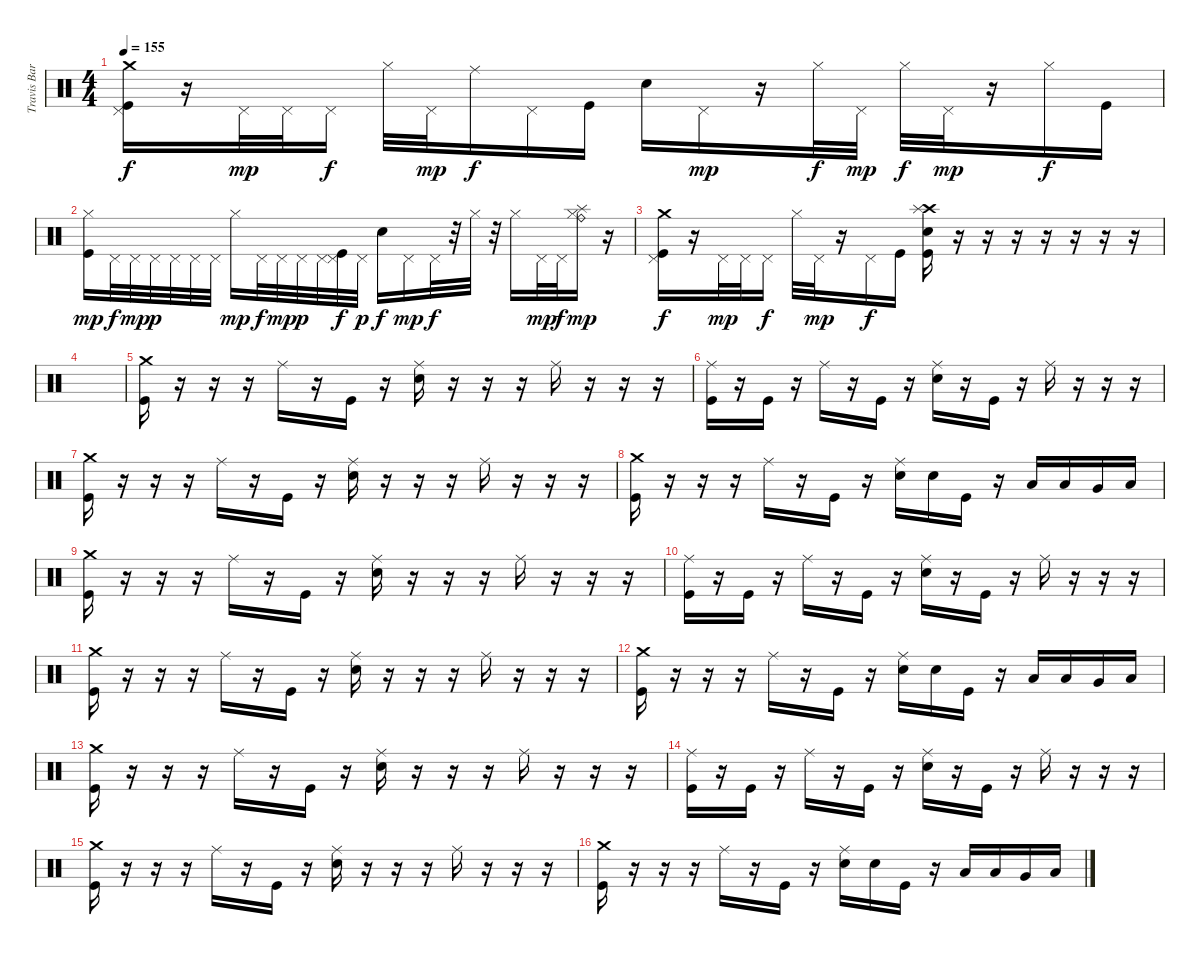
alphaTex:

\track ("Travis Barker(drums)" "Travis Bar") {instrument percussion}
\staff {score}
\articulation defaults
\ts (4 4)
\tempo 155
\clef neutral
\ks c
("Crash medium (hit)" "Pedal Hi-Hat (hit)" "Kick (hit)").16{dy f} r.16 "Pedal Hi-Hat (hit)".32{dy mp} "Pedal Hi-Hat (hit)".32 "Pedal Hi-Hat (hit)".16{dy f} "Hi-Hat (closed)".32 "Pedal Hi-Hat (hit)".32{dy mp} "Ride (middle)".16{dy f} "Pedal Hi-Hat (hit)".16 "Kick (hit)".16 "Electric Snare (hit)".16 "Pedal Hi-Hat (hit)".16{dy mp} r.16 "Hi-Hat (closed)".32{dy f} "Pedal Hi-Hat (hit)".32{dy mp} "Hi-Hat (closed)".32{dy f} "Pedal Hi-Hat (hit)".32{dy mp} r.16 "Hi-Hat (closed)".16{dy f} "Kick (hit)".16 |
("Hi-Hat (closed)" "Kick (hit)").16{dy mp} "Pedal Hi-Hat (hit)".32{dy f} "Pedal Hi-Hat (hit)".32{dy mp} "Pedal Hi-Hat (hit)".32{dy p} "Pedal Hi-Hat (hit)".32 "Pedal Hi-Hat (hit)".32 "Pedal Hi-Hat (hit)".32 "Hi-Hat (closed)".16{dy mp} "Pedal Hi-Hat (hit)".32{dy f} "Pedal Hi-Hat (hit)".32{dy mp} "Pedal Hi-Hat (hit)".32{dy p} "Pedal Hi-Hat (hit)".32 ("Pedal Hi-Hat (hit)" "Kick (hit)").32{dy f} "Pedal Hi-Hat (hit)".32{dy p} "Electric Snare (hit)".16{dy f} "Pedal Hi-Hat (hit)".16{dy mp} "Pedal Hi-Hat (hit)".32{dy f} r.32 "Hi-Hat (closed)".32 r.32 "Hi-Hat (closed)".16 "Pedal Hi-Hat (hit)".32{dy mp} "Pedal Hi-Hat (hit)".32{dy f} ("Splash (hit)" "Ride (bell)" "Hi-Hat (closed)").16{dy mp} r.16 |
("Crash medium (hit)" "Pedal Hi-Hat (hit)" "Kick (hit)").16{dy f} r.16 "Pedal Hi-Hat (hit)".32{dy mp} "Pedal Hi-Hat (hit)".32 "Pedal Hi-Hat (hit)".16{dy f} "Hi-Hat (closed)".32 "Pedal Hi-Hat (hit)".32{dy mp} r.16 "Pedal Hi-Hat (hit)".16{dy f} "Kick (hit)".16 ("Crash high (hit)" "Splash (hit)" "Electric Snare (hit)" "Kick (hit)").16 r.16 r.16 r.16 r.16 r.16 r.16 r.16 |
|
("Crash medium (hit)" "Kick (hit)").16 r.16 r.16 r.16 "Ride (middle)".16 r.16 "Kick (hit)".16 r.16 ("Ride (middle)" "Electric Snare (hit)").16 r.16 r.16 r.16 "Ride (middle)".16 r.16 r.16 r.16 |
("Ride (middle)" "Kick (hit)").16 r.16 "Kick (hit)".16 r.16 "Ride (middle)".16 r.16 "Kick (hit)".16 r.16 ("Ride (middle)" "Electric Snare (hit)").16 r.16 "Kick (hit)".16 r.16 "Ride (middle)".16 r.16 r.16 r.16 |
("Crash medium (hit)" "Kick (hit)").16 r.16 r.16 r.16 "Ride (middle)".16 r.16 "Kick (hit)".16 r.16 ("Ride (middle)" "Electric Snare (hit)").16 r.16 r.16 r.16 "Ride (middle)".16 r.16 r.16 r.16 |
("Crash medium (hit)" "Kick (hit)").16 r.16 r.16 r.16 "Ride (middle)".16 r.16 "Kick (hit)".16 r.16 ("Ride (middle)" "Electric Snare (hit)").16 "Electric Snare (hit)".16 "Kick (hit)".16 r.16 "Low Tom (hit)".16 "Low Tom (hit)".16 "Very Low Tom (hit)".16 "Low Floor Tom (hit)".16 |
("Crash medium (hit)" "Kick (hit)").16 r.16 r.16 r.16 "Ride (middle)".16 r.16 "Kick (hit)".16 r.16 ("Ride (middle)" "Electric Snare (hit)").16 r.16 r.16 r.16 "Ride (middle)".16 r.16 r.16 r.16 |
("Ride (middle)" "Kick (hit)").16 r.16 "Kick (hit)".16 r.16 "Ride (middle)".16 r.16 "Kick (hit)".16 r.16 ("Ride (middle)" "Electric Snare (hit)").16 r.16 "Kick (hit)".16 r.16 "Ride (middle)".16 r.16 r.16 r.16 |
("Crash medium (hit)" "Kick (hit)").16 r.16 r.16 r.16 "Ride (middle)".16 r.16 "Kick (hit)".16 r.16 ("Ride (middle)" "Electric Snare (hit)").16 r.16 r.16 r.16 "Ride (middle)".16 r.16 r.16 r.16 |
("Crash medium (hit)" "Kick (hit)").16 r.16 r.16 r.16 "Ride (middle)".16 r.16 "Kick (hit)".16 r.16 ("Ride (middle)" "Electric Snare (hit)").16 "Electric Snare (hit)".16 "Kick (hit)".16 r.16 "Low Tom (hit)".16 "Low Tom (hit)".16 "Very Low Tom (hit)".16 "Low Floor Tom (hit)".16 |
("Crash medium (hit)" "Kick (hit)").16 r.16 r.16 r.16 "Ride (middle)".16 r.16 "Kick (hit)".16 r.16 ("Ride (middle)" "Electric Snare (hit)").16 r.16 r.16 r.16 "Ride (middle)".16 r.16 r.16 r.16 |
("Ride (middle)" "Kick (hit)").16 r.16 "Kick (hit)".16 r.16 "Ride (middle)".16 r.16 "Kick (hit)".16 r.16 ("Ride (middle)" "Electric Snare (hit)").16 r.16 "Kick (hit)".16 r.16 "Ride (middle)".16 r.16 r.16 r.16 |
("Crash medium (hit)" "Kick (hit)").16 r.16 r.16 r.16 "Ride (middle)".16 r.16 "Kick (hit)".16 r.16 ("Ride (middle)" "Electric Snare (hit)").16 r.16 r.16 r.16 "Ride (middle)".16 r.16 r.16 r.16 |
("Crash medium (hit)" "Kick (hit)").16 r.16 r.16 r.16 "Ride (middle)".16 r.16 "Kick (hit)".16 r.16 ("Ride (middle)" "Electric Snare (hit)").16 "Electric Snare (hit)".16 "Kick (hit)".16 r.16 "Low Tom (hit)".16 "Low Tom (hit)".16 "Very Low Tom (hit)".16 "Low Floor Tom (hit)".16
